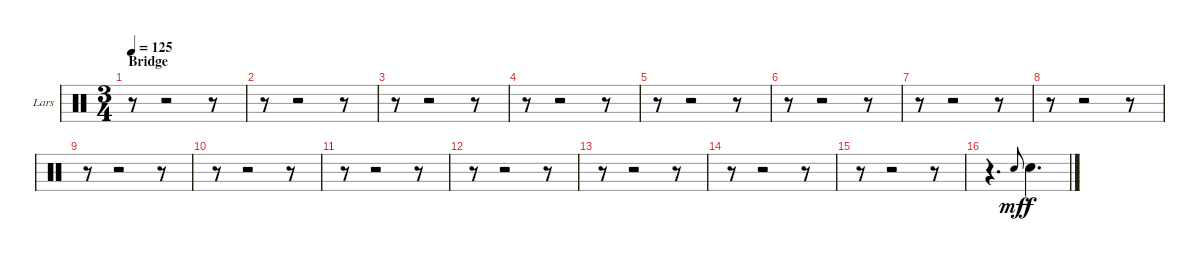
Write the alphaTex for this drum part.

\bracketExtendMode groupsimilarinstruments
\firstSystemTrackNameOrientation horizontal
\otherSystemsTrackNameOrientation horizontal
\track ("Drumkit" "Lars") {instrument percussion}
\staff {score}
\articulation defaults
\ts (3 4)
\section ("" "Bridge")
\tempo 125
\clef neutral
\ks c
r.8{dy f} r.2 r.8 |
r.8 r.2 r.8 |
r.8 r.2 r.8 |
r.8 r.2 r.8 |
r.8 r.2 r.8 |
r.8 r.2 r.8 |
r.8 r.2 r.8 |
r.8 r.2 r.8 |
r.8 r.2 r.8 |
r.8 r.2 r.8 |
r.8 r.2 r.8 |
r.8 r.2 r.8 |
r.8 r.2 r.8 |
r.8 r.2 r.8 |
r.8 r.2 r.8 |
r.4{d} "Snare (hit) 2".8{gr onbeat dy mf} "Snare (hit) 2".4{d dy f}
